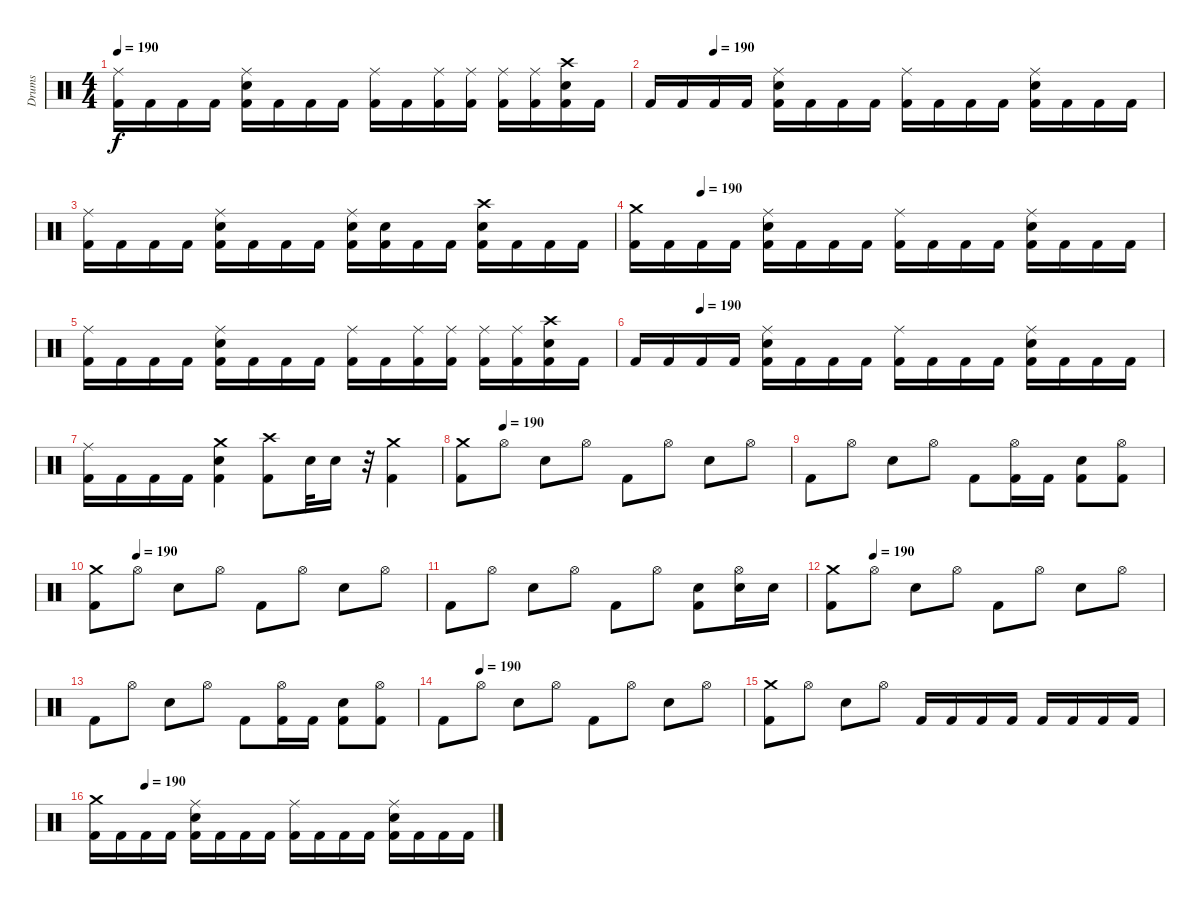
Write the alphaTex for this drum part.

\track ("Drums" "Drums") {instrument percussion}
\staff {score}
\articulation defaults
\ts (4 4)
\tempo 190
\clef neutral
\ks c
("Ride (middle)" "Kick (hit) 2").16{dy f} "Kick (hit) 2".16 "Kick (hit) 2".16 "Kick (hit) 2".16 ("Ride (middle)" "Electric Snare (hit)" "Kick (hit) 2").16 "Kick (hit) 2".16 "Kick (hit) 2".16 "Kick (hit) 2".16 ("Ride (middle)" "Kick (hit) 2").16 "Kick (hit) 2".16 ("Ride (middle)" "Kick (hit) 2").16 ("Ride (middle)" "Kick (hit) 2").16 ("Ride (middle)" "Kick (hit) 2").16 ("Ride (middle)" "Kick (hit) 2").16 ("Crash high (hit)" "Electric Snare (hit)" "Kick (hit) 2").16 "Kick (hit) 2".16 |
\tempo (190 0.125)
"Kick (hit) 2".16 "Kick (hit) 2".16 "Kick (hit) 2".16 "Kick (hit) 2".16 ("Ride (middle)" "Electric Snare (hit)" "Kick (hit) 2").16 "Kick (hit) 2".16 "Kick (hit) 2".16 "Kick (hit) 2".16 ("Ride (middle)" "Kick (hit) 2").16 "Kick (hit) 2".16 "Kick (hit) 2".16 "Kick (hit) 2".16 ("Ride (middle)" "Electric Snare (hit)" "Kick (hit) 2").16 "Kick (hit) 2".16 "Kick (hit) 2".16 "Kick (hit) 2".16 |
("Ride (middle)" "Kick (hit) 2").16 "Kick (hit) 2".16 "Kick (hit) 2".16 "Kick (hit) 2".16 ("Ride (middle)" "Electric Snare (hit)" "Kick (hit) 2").16 "Kick (hit) 2".16 "Kick (hit) 2".16 "Kick (hit) 2".16 ("Ride (middle)" "Electric Snare (hit)" "Kick (hit) 2").16 ("Electric Snare (hit)" "Kick (hit) 2").16 "Kick (hit) 2".16 "Kick (hit) 2".16 ("Crash high (hit)" "Electric Snare (hit)" "Kick (hit) 2").16 "Kick (hit) 2".16 "Kick (hit) 2".16 "Kick (hit) 2".16 |
\tempo (190 0.125)
("Crash medium (hit)" "Kick (hit) 2").16 "Kick (hit) 2".16 "Kick (hit) 2".16 "Kick (hit) 2".16 ("Ride (middle)" "Electric Snare (hit)" "Kick (hit) 2").16 "Kick (hit) 2".16 "Kick (hit) 2".16 "Kick (hit) 2".16 ("Ride (middle)" "Kick (hit) 2").16 "Kick (hit) 2".16 "Kick (hit) 2".16 "Kick (hit) 2".16 ("Ride (middle)" "Electric Snare (hit)" "Kick (hit) 2").16 "Kick (hit) 2".16 "Kick (hit) 2".16 "Kick (hit) 2".16 |
("Ride (middle)" "Kick (hit) 2").16 "Kick (hit) 2".16 "Kick (hit) 2".16 "Kick (hit) 2".16 ("Ride (middle)" "Electric Snare (hit)" "Kick (hit) 2").16 "Kick (hit) 2".16 "Kick (hit) 2".16 "Kick (hit) 2".16 ("Ride (middle)" "Kick (hit) 2").16 "Kick (hit) 2".16 ("Ride (middle)" "Kick (hit) 2").16 ("Ride (middle)" "Kick (hit) 2").16 ("Ride (middle)" "Kick (hit) 2").16 ("Ride (middle)" "Kick (hit) 2").16 ("Crash high (hit)" "Electric Snare (hit)" "Kick (hit) 2").16 "Kick (hit) 2".16 |
\tempo (190 0.125)
"Kick (hit) 2".16 "Kick (hit) 2".16 "Kick (hit) 2".16 "Kick (hit) 2".16 ("Ride (middle)" "Electric Snare (hit)" "Kick (hit) 2").16 "Kick (hit) 2".16 "Kick (hit) 2".16 "Kick (hit) 2".16 ("Ride (middle)" "Kick (hit) 2").16 "Kick (hit) 2".16 "Kick (hit) 2".16 "Kick (hit) 2".16 ("Ride (middle)" "Electric Snare (hit)" "Kick (hit) 2").16 "Kick (hit) 2".16 "Kick (hit) 2".16 "Kick (hit) 2".16 |
("Ride (middle)" "Kick (hit) 2").16 "Kick (hit) 2".16 "Kick (hit) 2".16 "Kick (hit) 2".16 ("Crash medium (hit)" "Electric Snare (hit)" "Kick (hit) 2").4 ("Crash high (hit)" "Kick (hit) 2").8 "Electric Snare (hit)".32 "Electric Snare (hit)".16 r.32 ("Crash medium (hit)" "Kick (hit) 2").4 |
\tempo (190 0.125)
("Crash medium (hit)" "Kick (hit) 2").8 "Hi-Hat (open)".8 "Electric Snare (hit)".8 "Hi-Hat (open)".8 "Kick (hit) 2".8 "Hi-Hat (open)".8 "Electric Snare (hit)".8 "Hi-Hat (open)".8 |
"Kick (hit) 2".8 "Hi-Hat (open)".8 "Electric Snare (hit)".8 "Hi-Hat (open)".8 "Kick (hit) 2".8 ("Hi-Hat (open)" "Kick (hit) 2").16 "Kick (hit) 2".16 ("Electric Snare (hit)" "Kick (hit) 2").8 ("Hi-Hat (open)" "Kick (hit) 2").8 |
\tempo (190 0.125)
("Crash medium (hit)" "Kick (hit) 2").8 "Hi-Hat (open)".8 "Electric Snare (hit)".8 "Hi-Hat (open)".8 "Kick (hit) 2".8 "Hi-Hat (open)".8 "Electric Snare (hit)".8 "Hi-Hat (open)".8 |
"Kick (hit) 2".8 "Hi-Hat (open)".8 "Electric Snare (hit)".8 "Hi-Hat (open)".8 "Kick (hit) 2".8 "Hi-Hat (open)".8 ("Electric Snare (hit)" "Kick (hit) 2").8 ("Hi-Hat (open)" "Electric Snare (hit)").16 "Electric Snare (hit)".16 |
\tempo (190 0.125)
("Crash medium (hit)" "Kick (hit) 2").8 "Hi-Hat (open)".8 "Electric Snare (hit)".8 "Hi-Hat (open)".8 "Kick (hit) 2".8 "Hi-Hat (open)".8 "Electric Snare (hit)".8 "Hi-Hat (open)".8 |
"Kick (hit) 2".8 "Hi-Hat (open)".8 "Electric Snare (hit)".8 "Hi-Hat (open)".8 "Kick (hit) 2".8 ("Hi-Hat (open)" "Kick (hit) 2").16 "Kick (hit) 2".16 ("Electric Snare (hit)" "Kick (hit) 2").8 ("Hi-Hat (open)" "Kick (hit) 2").8 |
\tempo (190 0.125)
"Kick (hit) 2".8 "Hi-Hat (open)".8 "Electric Snare (hit)".8 "Hi-Hat (open)".8 "Kick (hit) 2".8 "Hi-Hat (open)".8 "Electric Snare (hit)".8 "Hi-Hat (open)".8 |
("Crash medium (hit)" "Kick (hit) 2").8 "Hi-Hat (open)".8 "Electric Snare (hit)".8 "Hi-Hat (open)".8 "Kick (hit) 2".16 "Kick (hit) 2".16 "Kick (hit) 2".16 "Kick (hit) 2".16 "Kick (hit) 2".16 "Kick (hit) 2".16 "Kick (hit) 2".16 "Kick (hit) 2".16 |
\tempo (190 0.125)
("Crash medium (hit)" "Kick (hit) 2").16 "Kick (hit) 2".16 "Kick (hit) 2".16 "Kick (hit) 2".16 ("Ride (middle)" "Electric Snare (hit)" "Kick (hit) 2").16 "Kick (hit) 2".16 "Kick (hit) 2".16 "Kick (hit) 2".16 ("Ride (middle)" "Kick (hit) 2").16 "Kick (hit) 2".16 "Kick (hit) 2".16 "Kick (hit) 2".16 ("Ride (middle)" "Electric Snare (hit)" "Kick (hit) 2").16 "Kick (hit) 2".16 "Kick (hit) 2".16 "Kick (hit) 2".16
